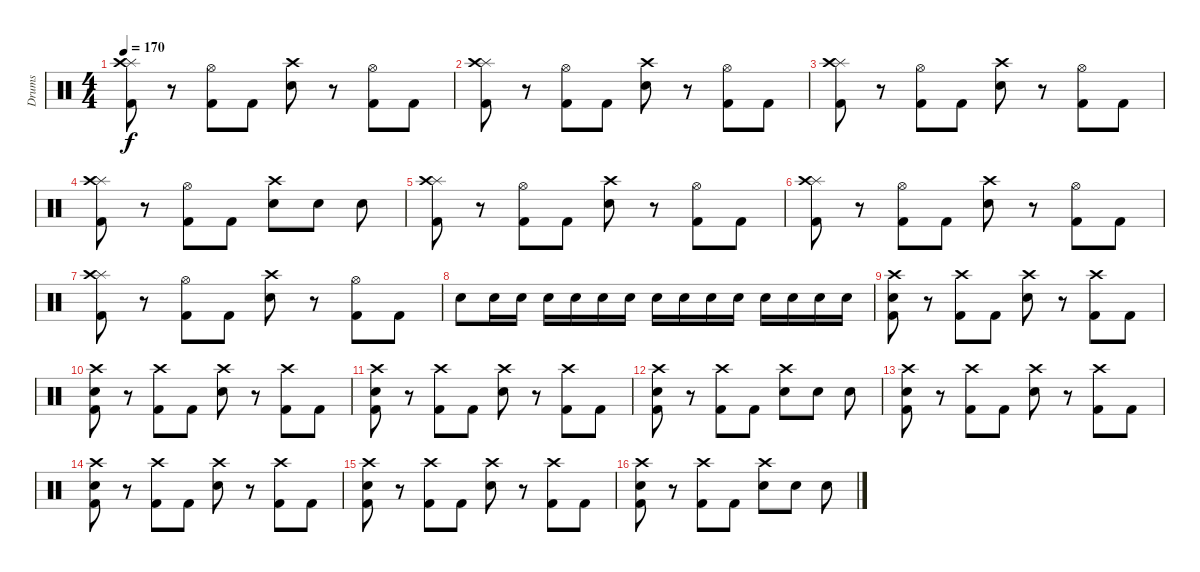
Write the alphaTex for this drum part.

\track ("Drums" "Drums") {instrument percussion}
\staff {score}
\articulation defaults
\ts (4 4)
\tempo 170
\clef neutral
\ks c
("Splash (hit)" "Crash high (hit)" "Kick (hit) 2").8{dy f} r.8 ("Hi-Hat (open)" "Kick (hit) 2").8 "Kick (hit) 2".8 ("Crash high (hit)" "Snare (hit) 2").8 r.8 ("Hi-Hat (open)" "Kick (hit) 2").8 "Kick (hit) 2".8 |
("Splash (hit)" "Crash high (hit)" "Kick (hit) 2").8 r.8 ("Hi-Hat (open)" "Kick (hit) 2").8 "Kick (hit) 2".8 ("Crash high (hit)" "Snare (hit) 2").8 r.8 ("Hi-Hat (open)" "Kick (hit) 2").8 "Kick (hit) 2".8 |
("Splash (hit)" "Crash high (hit)" "Kick (hit) 2").8 r.8 ("Hi-Hat (open)" "Kick (hit) 2").8 "Kick (hit) 2".8 ("Crash high (hit)" "Snare (hit) 2").8 r.8 ("Hi-Hat (open)" "Kick (hit) 2").8 "Kick (hit) 2".8 |
("Splash (hit)" "Crash high (hit)" "Kick (hit) 2").8 r.8 ("Hi-Hat (open)" "Kick (hit) 2").8 "Kick (hit) 2".8 ("Crash high (hit)" "Snare (hit) 2").8 "Snare (hit) 2".8 "Snare (hit) 2".8 |
("Splash (hit)" "Crash high (hit)" "Kick (hit) 2").8 r.8 ("Hi-Hat (open)" "Kick (hit) 2").8 "Kick (hit) 2".8 ("Crash high (hit)" "Snare (hit) 2").8 r.8 ("Hi-Hat (open)" "Kick (hit) 2").8 "Kick (hit) 2".8 |
("Splash (hit)" "Crash high (hit)" "Kick (hit) 2").8 r.8 ("Hi-Hat (open)" "Kick (hit) 2").8 "Kick (hit) 2".8 ("Crash high (hit)" "Snare (hit) 2").8 r.8 ("Hi-Hat (open)" "Kick (hit) 2").8 "Kick (hit) 2".8 |
("Splash (hit)" "Crash high (hit)" "Kick (hit) 2").8 r.8 ("Hi-Hat (open)" "Kick (hit) 2").8 "Kick (hit) 2".8 ("Crash high (hit)" "Snare (hit) 2").8 r.8 ("Hi-Hat (open)" "Kick (hit) 2").8 "Kick (hit) 2".8 |
"Snare (hit) 2".8 "Snare (hit) 2".16 "Snare (hit) 2".16 "Snare (hit) 2".16 "Snare (hit) 2".16 "Snare (hit) 2".16 "Snare (hit) 2".16 "Snare (hit) 2".16 "Snare (hit) 2".16 "Snare (hit) 2".16 "Snare (hit) 2".16 "Snare (hit) 2".16 "Snare (hit) 2".16 "Snare (hit) 2".16 "Snare (hit) 2".16 |
("Crash high (hit)" "Snare (hit) 2" "Kick (hit) 2").8 r.8 ("Crash high (hit)" "Kick (hit) 2").8 "Kick (hit) 2".8 ("Crash high (hit)" "Snare (hit) 2").8 r.8 ("Crash high (hit)" "Kick (hit) 2").8 "Kick (hit) 2".8 |
("Crash high (hit)" "Snare (hit) 2" "Kick (hit) 2").8 r.8 ("Crash high (hit)" "Kick (hit) 2").8 "Kick (hit) 2".8 ("Crash high (hit)" "Snare (hit) 2").8 r.8 ("Crash high (hit)" "Kick (hit) 2").8 "Kick (hit) 2".8 |
("Crash high (hit)" "Snare (hit) 2" "Kick (hit) 2").8 r.8 ("Crash high (hit)" "Kick (hit) 2").8 "Kick (hit) 2".8 ("Crash high (hit)" "Snare (hit) 2").8 r.8 ("Crash high (hit)" "Kick (hit) 2").8 "Kick (hit) 2".8 |
("Crash high (hit)" "Snare (hit) 2" "Kick (hit) 2").8 r.8 ("Crash high (hit)" "Kick (hit) 2").8 "Kick (hit) 2".8 ("Crash high (hit)" "Snare (hit) 2").8 "Snare (hit) 2".8 "Snare (hit) 2".8 |
("Crash high (hit)" "Snare (hit) 2" "Kick (hit) 2").8 r.8 ("Crash high (hit)" "Kick (hit) 2").8 "Kick (hit) 2".8 ("Crash high (hit)" "Snare (hit) 2").8 r.8 ("Crash high (hit)" "Kick (hit) 2").8 "Kick (hit) 2".8 |
("Crash high (hit)" "Snare (hit) 2" "Kick (hit) 2").8 r.8 ("Crash high (hit)" "Kick (hit) 2").8 "Kick (hit) 2".8 ("Crash high (hit)" "Snare (hit) 2").8 r.8 ("Crash high (hit)" "Kick (hit) 2").8 "Kick (hit) 2".8 |
("Crash high (hit)" "Snare (hit) 2" "Kick (hit) 2").8 r.8 ("Crash high (hit)" "Kick (hit) 2").8 "Kick (hit) 2".8 ("Crash high (hit)" "Snare (hit) 2").8 r.8 ("Crash high (hit)" "Kick (hit) 2").8 "Kick (hit) 2".8 |
("Crash high (hit)" "Snare (hit) 2" "Kick (hit) 2").8 r.8 ("Crash high (hit)" "Kick (hit) 2").8 "Kick (hit) 2".8 ("Crash high (hit)" "Snare (hit) 2").8 "Snare (hit) 2".8 "Snare (hit) 2".8
